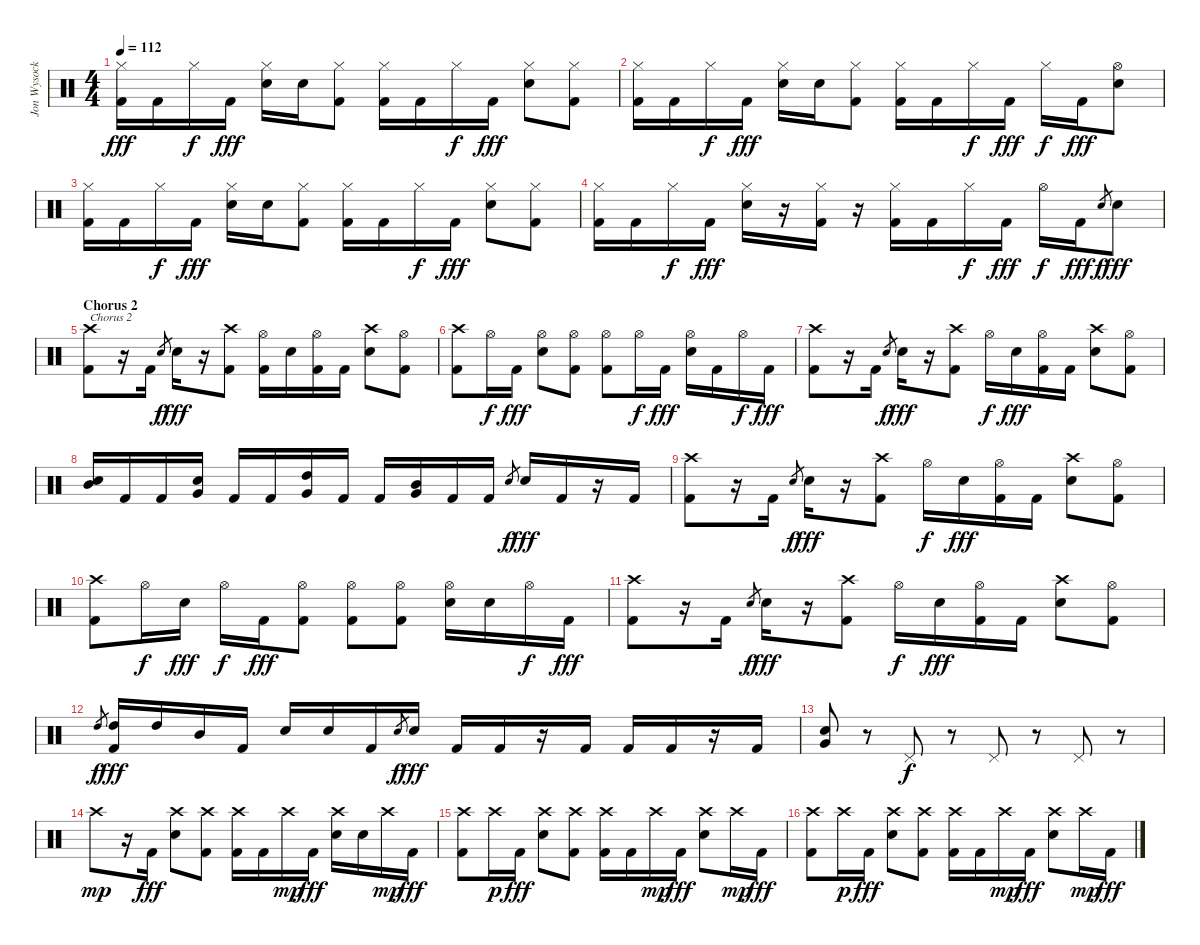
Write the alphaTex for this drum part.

\track ("Jon Wysocki" "Jon Wysock") {instrument percussion}
\staff {score}
\articulation defaults
\ts (4 4)
\tempo 112
\clef neutral
\ks c
("Hi-Hat (closed)" "Kick (hit) 2").16{dy fff} "Kick (hit) 2".16 "Hi-Hat (closed)".16{dy f} "Kick (hit) 2".16{dy fff} ("Hi-Hat (closed)" "Electric Snare (hit)").16 "Electric Snare (hit)".16 ("Hi-Hat (closed)" "Kick (hit) 2").8 ("Hi-Hat (closed)" "Kick (hit) 2").16 "Kick (hit) 2".16 "Hi-Hat (closed)".16{dy f} "Kick (hit) 2".16{dy fff} ("Hi-Hat (closed)" "Electric Snare (hit)").8 ("Hi-Hat (closed)" "Kick (hit) 2").8 |
("Hi-Hat (closed)" "Kick (hit) 2").16 "Kick (hit) 2".16 "Hi-Hat (closed)".16{dy f} "Kick (hit) 2".16{dy fff} ("Hi-Hat (closed)" "Electric Snare (hit)").16 "Electric Snare (hit)".16 ("Hi-Hat (closed)" "Kick (hit) 2").8 ("Hi-Hat (closed)" "Kick (hit) 2").16 "Kick (hit) 2".16 "Hi-Hat (closed)".16{dy f} "Kick (hit) 2".16{dy fff} "Hi-Hat (closed)".16{dy f} "Kick (hit) 2".16{dy fff} ("Hi-Hat (open)" "Electric Snare (hit)").8 |
("Hi-Hat (closed)" "Kick (hit) 2").16 "Kick (hit) 2".16 "Hi-Hat (closed)".16{dy f} "Kick (hit) 2".16{dy fff} ("Hi-Hat (closed)" "Electric Snare (hit)").16 "Electric Snare (hit)".16 ("Hi-Hat (closed)" "Kick (hit) 2").8 ("Hi-Hat (closed)" "Kick (hit) 2").16 "Kick (hit) 2".16 "Hi-Hat (closed)".16{dy f} "Kick (hit) 2".16{dy fff} ("Hi-Hat (closed)" "Electric Snare (hit)").8 ("Hi-Hat (closed)" "Kick (hit) 2").8 |
("Hi-Hat (closed)" "Kick (hit) 2").16 "Kick (hit) 2".16 "Hi-Hat (closed)".16{dy f} "Kick (hit) 2".16{dy fff} ("Hi-Hat (closed)" "Electric Snare (hit)").16 r.16 ("Hi-Hat (closed)" "Kick (hit) 2").16 r.16 ("Hi-Hat (closed)" "Kick (hit) 2").16 "Kick (hit) 2".16 "Hi-Hat (closed)".16{dy f} "Kick (hit) 2".16{dy fff} "Hi-Hat (open)".16{dy f} "Kick (hit) 2".16{dy fff} "Electric Snare (hit)".8{gr dy f} "Electric Snare (hit)".8{dy fff} |
\section ("" "Chorus 2")
("Crash high (hit)" "Kick (hit) 2").8{txt "Chorus 2"} r.16 "Kick (hit) 2".16 "Electric Snare (hit)".8{gr dy f} "Electric Snare (hit)".16{dy fff} r.16 ("Crash high (hit)" "Kick (hit) 2").8 ("Hi-Hat (open)" "Kick (hit) 2").16 "Electric Snare (hit)".16 ("Hi-Hat (open)" "Kick (hit) 2").16 "Kick (hit) 2".16 ("Crash high (hit)" "Electric Snare (hit)").8 ("Hi-Hat (open)" "Kick (hit) 2").8 |
("Crash high (hit)" "Kick (hit) 2").8 "Hi-Hat (open)".16{dy f} "Kick (hit) 2".16{dy fff} ("Hi-Hat (open)" "Electric Snare (hit)").8 ("Hi-Hat (open)" "Kick (hit) 2").8 ("Hi-Hat (open)" "Kick (hit) 2").8 "Hi-Hat (open)".16{dy f} "Kick (hit) 2".16{dy fff} ("Hi-Hat (open)" "Electric Snare (hit)").16 "Kick (hit) 2".16 "Hi-Hat (open)".16{dy f} "Kick (hit) 2".16{dy fff} |
("Crash high (hit)" "Kick (hit) 2").8 r.16 "Kick (hit) 2".16 "Electric Snare (hit)".8{gr dy f} "Electric Snare (hit)".16{dy fff} r.16 ("Crash high (hit)" "Kick (hit) 2").8 "Hi-Hat (open)".16{dy f} "Electric Snare (hit)".16{dy fff} ("Hi-Hat (open)" "Kick (hit) 2").16 "Kick (hit) 2".16 ("Crash high (hit)" "Electric Snare (hit)").8 ("Hi-Hat (open)" "Kick (hit) 2").8 |
("Mid Tom (hit)" "Electric Snare (hit)").16 "Kick (hit) 2".16 "Kick (hit) 2".16 ("Electric Snare (hit)" "Very Low Tom (hit)").16 "Kick (hit) 2".16 "Kick (hit) 2".16 ("High Tom (hit)" "Very Low Tom (hit)").16 "Kick (hit) 2".16 "Kick (hit) 2".16 ("Mid Tom (hit)" "Very Low Tom (hit)").16 "Kick (hit) 2".16 "Kick (hit) 2".16 "Electric Snare (hit)".8{gr dy f} "Electric Snare (hit)".16{dy fff} "Kick (hit) 2".16 r.16 "Kick (hit) 2".16 |
("Crash high (hit)" "Kick (hit) 2").8 r.16 "Kick (hit) 2".16 "Electric Snare (hit)".8{gr dy f} "Electric Snare (hit)".16{dy fff} r.16 ("Crash high (hit)" "Kick (hit) 2").8 "Hi-Hat (open)".16{dy f} "Electric Snare (hit)".16{dy fff} ("Hi-Hat (open)" "Kick (hit) 2").16 "Kick (hit) 2".16 ("Crash high (hit)" "Electric Snare (hit)").8 ("Hi-Hat (open)" "Kick (hit) 2").8 |
("Crash high (hit)" "Kick (hit) 2").8 "Hi-Hat (open)".16{dy f} "Electric Snare (hit)".16{dy fff} "Hi-Hat (open)".16{dy f} "Kick (hit) 2".16{dy fff} ("Hi-Hat (open)" "Kick (hit) 2").8 ("Hi-Hat (open)" "Kick (hit) 2").8 ("Hi-Hat (open)" "Kick (hit) 2").8 ("Hi-Hat (open)" "Electric Snare (hit)").16 "Electric Snare (hit)".16 "Hi-Hat (open)".16{dy f} "Kick (hit) 2".16{dy fff} |
("Crash high (hit)" "Kick (hit) 2").8 r.16 "Kick (hit) 2".16 "Electric Snare (hit)".8{gr dy f} "Electric Snare (hit)".16{dy fff} r.16 ("Crash high (hit)" "Kick (hit) 2").8 "Hi-Hat (open)".16{dy f} "Electric Snare (hit)".16{dy fff} ("Hi-Hat (open)" "Kick (hit) 2").16 "Kick (hit) 2".16 ("Crash high (hit)" "Electric Snare (hit)").8 ("Hi-Hat (open)" "Kick (hit) 2").8 |
"High Tom (hit)".8{gr dy f} ("High Tom (hit)" "Kick (hit) 2").16{dy fff} "High Tom (hit)".16 "Mid Tom (hit)".16 "Kick (hit) 2".16 "Electric Snare (hit)".16 "Electric Snare (hit)".16 "Kick (hit) 2".16 "Electric Snare (hit)".8{gr dy f} "Electric Snare (hit)".16{dy fff} "Kick (hit) 2".16 "Kick (hit) 2".16 r.16 "Kick (hit) 2".16 "Kick (hit) 2".16 "Kick (hit) 2".16 r.16 "Kick (hit) 2".16 |
("Electric Snare (hit)" "Very Low Tom (hit)").8 r.8 "Pedal Hi-Hat (hit)".8{dy f} r.8 "Pedal Hi-Hat (hit)".8 r.8 "Pedal Hi-Hat (hit)".8 r.8 |
"Crash high (hit)".8{dy mp} r.16 "Kick (hit) 2".16{dy fff} ("Crash high (hit)" "Electric Snare (hit)").8 ("Crash high (hit)" "Kick (hit) 2").8 ("Crash high (hit)" "Kick (hit) 2").16 "Kick (hit) 2".16 "Crash high (hit)".16{dy mp} "Kick (hit) 2".16{dy fff} ("Crash high (hit)" "Electric Snare (hit)").16 "Electric Snare (hit)".16 "Crash high (hit)".16{dy mp} "Kick (hit) 2".16{dy fff} |
("Crash high (hit)" "Kick (hit) 2").8 "Crash high (hit)".16{dy p} "Kick (hit) 2".16{dy fff} ("Crash high (hit)" "Electric Snare (hit)").8 ("Crash high (hit)" "Kick (hit) 2").8 ("Crash high (hit)" "Kick (hit) 2").16 "Kick (hit) 2".16 "Crash high (hit)".16{dy mp} "Kick (hit) 2".16{dy fff} ("Crash high (hit)" "Electric Snare (hit)").8 "Crash high (hit)".16{dy mp} "Kick (hit) 2".16{dy fff} |
("Crash high (hit)" "Kick (hit) 2").8 "Crash high (hit)".16{dy p} "Kick (hit) 2".16{dy fff} ("Crash high (hit)" "Electric Snare (hit)").8 ("Crash high (hit)" "Kick (hit) 2").8 ("Crash high (hit)" "Kick (hit) 2").16 "Kick (hit) 2".16 "Crash high (hit)".16{dy mp} "Kick (hit) 2".16{dy fff} ("Crash high (hit)" "Electric Snare (hit)").8 "Crash high (hit)".16{dy mp} "Kick (hit) 2".16{dy fff}
